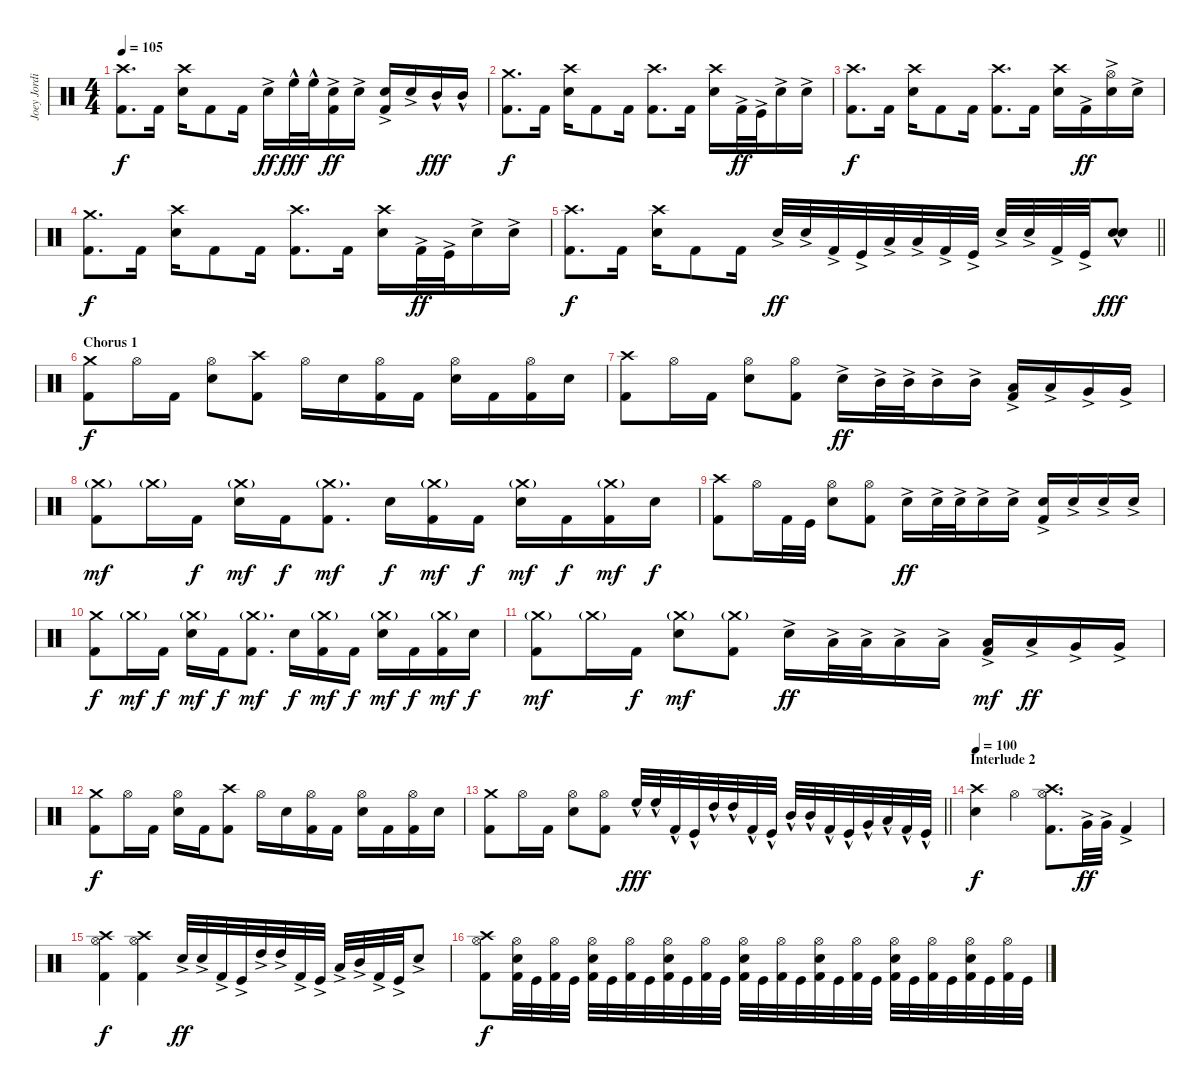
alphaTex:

\track ("Joey Jordinson (Drums)" "Joey Jordi") {instrument percussion}
\staff {score}
\articulation defaults
\ts (4 4)
\tempo 105
\clef neutral
\ks c
("Crash high (hit)" "Kick (hit) 2").8{d dy f} "Kick (hit) 2".16 ("Crash high (hit)" "Electric Snare (hit)").16 "Kick (hit) 2".8 "Kick (hit) 2".16 "Electric Snare (hit)"{ac}.16{dy ff} "High Floor Tom (hit)"{hac}.32{dy fff} "High Floor Tom (hit)"{hac}.32 ("Electric Snare (hit)"{ac} "Kick (hit) 2").16{dy ff} "Electric Snare (hit)"{ac}.16 ("Electric Snare (hit)"{ac} "Kick (hit) 2").16 "Electric Snare (hit)"{ac}.16 "Mid Tom (hit)"{hac}.16{dy fff} "Mid Tom (hit)"{hac}.16 |
("Crash medium (hit)" "Kick (hit) 2").8{d dy f} "Kick (hit) 2".16 ("Crash high (hit)" "Electric Snare (hit)").16 "Kick (hit) 2".8 "Kick (hit) 2".16 ("Crash high (hit)" "Kick (hit) 2").8{d} "Kick (hit) 2".16 ("Crash high (hit)" "Electric Snare (hit)").16 "Kick (hit) 2"{ac}.32{dy ff} "Kick (hit)"{ac}.32 "Electric Snare (hit)"{ac}.16 "Electric Snare (hit)"{ac}.16 |
("Crash high (hit)" "Kick (hit) 2").8{d dy f} "Kick (hit) 2".16 ("Crash high (hit)" "Electric Snare (hit)").16 "Kick (hit) 2".8 "Kick (hit) 2".16 ("Crash high (hit)" "Kick (hit) 2").8{d} "Kick (hit) 2".16 ("Crash high (hit)" "Electric Snare (hit)").16 "Kick (hit) 2"{ac}.16{dy ff} ("Hi-Hat (open)"{ac} "Electric Snare (hit)"{ac}).16 "Electric Snare (hit)"{ac}.16 |
("Crash medium (hit)" "Kick (hit) 2").8{d dy f} "Kick (hit) 2".16 ("Crash high (hit)" "Electric Snare (hit)").16 "Kick (hit) 2".8 "Kick (hit) 2".16 ("Crash high (hit)" "Kick (hit) 2").8{d} "Kick (hit) 2".16 ("Crash high (hit)" "Electric Snare (hit)").16 "Kick (hit) 2"{ac}.32{dy ff} "Kick (hit)"{ac}.32 "Electric Snare (hit)"{ac}.16 "Electric Snare (hit)"{ac}.16 |
\barLineRight lightlight
("Crash high (hit)" "Kick (hit) 2").8{d dy f} "Kick (hit) 2".16 ("Crash high (hit)" "Electric Snare (hit)").16 "Kick (hit) 2".8 "Kick (hit) 2".16 "Electric Snare (hit)"{ac}.32{dy ff} "Electric Snare (hit)"{ac}.32 "Kick (hit) 2"{ac}.32 "Kick (hit)"{ac}.32 "Low Tom (hit)"{ac}.32 "Low Tom (hit)"{ac}.32 "Kick (hit) 2"{ac}.32 "Kick (hit)"{ac}.32 "Electric Snare (hit)"{ac}.32 "Electric Snare (hit)"{ac}.32 "Kick (hit) 2"{ac}.32 "Kick (hit)"{ac}.32 ("Electric Snare (hit)"{hac} "Electric Snare (hit)"{hac}).8{dy fff} |
\section ("" "Chorus 1")
("Crash medium (hit)" "Kick (hit) 2").8{dy f} "Hi-Hat (open)".16 "Kick (hit) 2".16 ("Hi-Hat (open)" "Electric Snare (hit)").8 ("Crash high (hit)" "Kick (hit) 2").8 "Hi-Hat (open)".16 "Electric Snare (hit)".16 ("Hi-Hat (open)" "Kick (hit) 2").16 "Kick (hit) 2".16 ("Hi-Hat (open)" "Electric Snare (hit)").16 "Kick (hit) 2".16 ("Hi-Hat (open)" "Kick (hit) 2").16 "Electric Snare (hit)".16 |
("Crash high (hit)" "Kick (hit) 2").8 "Hi-Hat (open)".16 "Kick (hit) 2".16 ("Hi-Hat (open)" "Electric Snare (hit)").8 ("Hi-Hat (open)" "Kick (hit) 2").8 "Electric Snare (hit)"{ac}.16{dy ff} "Mid Tom (hit)"{ac}.32 "Mid Tom (hit)"{ac}.32 "Mid Tom (hit)"{ac}.16 "Mid Tom (hit)"{ac}.16 ("Low Tom (hit)"{ac} "Kick (hit) 2").16 "Low Tom (hit)"{ac}.16 "Very Low Tom (hit)"{ac}.16 "Very Low Tom (hit)"{ac}.16 |
("Crash medium (hit)"{g} "Kick (hit) 2").8{dy mf} "Crash medium (hit)"{g}.16 "Kick (hit) 2".16{dy f} ("Crash medium (hit)"{g} "Electric Snare (hit)").16{dy mf} "Kick (hit) 2".16{dy f} ("Crash medium (hit)"{g} "Kick (hit) 2").8{d dy mf} "Electric Snare (hit)".16{dy f} ("Crash medium (hit)"{g} "Kick (hit) 2").16{dy mf} "Kick (hit) 2".16{dy f} ("Crash medium (hit)"{g} "Electric Snare (hit)").16{dy mf} "Kick (hit) 2".16{dy f} ("Crash medium (hit)"{g} "Kick (hit) 2").16{dy mf} "Electric Snare (hit)".16{dy f} |
("Crash high (hit)" "Kick (hit) 2").8 "Hi-Hat (open)".16 "Kick (hit) 2".32 "Kick (hit)".32 ("Hi-Hat (open)" "Electric Snare (hit)").8 ("Hi-Hat (open)" "Kick (hit) 2").8 "Electric Snare (hit)"{ac}.16{dy ff} "Electric Snare (hit)"{ac}.32 "Electric Snare (hit)"{ac}.32 "Electric Snare (hit)"{ac}.16 "Electric Snare (hit)"{ac}.16 ("Electric Snare (hit)"{ac} "Kick (hit) 2").16 "Electric Snare (hit)"{ac}.16 "Electric Snare (hit)"{ac}.16 "Electric Snare (hit)"{ac}.16 |
("Crash medium (hit)" "Kick (hit) 2").8{dy f} "Crash medium (hit)"{g}.16{dy mf} "Kick (hit) 2".16{dy f} ("Crash medium (hit)"{g} "Electric Snare (hit)").16{dy mf} "Kick (hit) 2".16{dy f} ("Crash medium (hit)"{g} "Kick (hit) 2").8{d dy mf} "Electric Snare (hit)".16{dy f} ("Crash medium (hit)"{g} "Kick (hit) 2").16{dy mf} "Kick (hit) 2".16{dy f} ("Crash medium (hit)"{g} "Electric Snare (hit)").16{dy mf} "Kick (hit) 2".16{dy f} ("Crash medium (hit)"{g} "Kick (hit) 2").16{dy mf} "Electric Snare (hit)".16{dy f} |
("Crash medium (hit)"{g} "Kick (hit) 2").8{dy mf} "Crash medium (hit)"{g}.16 "Kick (hit) 2".16{dy f} ("Crash medium (hit)"{g} "Electric Snare (hit)").8{dy mf} ("Crash medium (hit)"{g} "Kick (hit) 2").8 "Electric Snare (hit)"{ac}.16{dy ff} "Low Tom (hit)"{ac}.32 "Low Tom (hit)"{ac}.32 "Low Tom (hit)"{ac}.16 "Low Tom (hit)"{ac}.16 ("Low Tom (hit)"{ac} "Kick (hit) 2").16{dy mf} "Low Tom (hit)"{ac}.16{dy ff} "Very Low Tom (hit)"{ac}.16 "Very Low Tom (hit)"{ac}.16 |
("Crash medium (hit)" "Kick (hit) 2").8{dy f} "Hi-Hat (open)".16 "Kick (hit) 2".16 ("Hi-Hat (open)" "Electric Snare (hit)").16 "Kick (hit) 2".16 ("Crash high (hit)" "Kick (hit) 2").8 "Hi-Hat (open)".16 "Electric Snare (hit)".16 ("Hi-Hat (open)" "Kick (hit) 2").16 "Kick (hit) 2".16 ("Hi-Hat (open)" "Electric Snare (hit)").16 "Kick (hit) 2".16 ("Hi-Hat (open)" "Kick (hit) 2").16 "Electric Snare (hit)".16 |
\barLineRight lightlight
("Crash medium (hit)" "Kick (hit) 2").8 "Hi-Hat (open)".16 "Kick (hit) 2".16 ("Hi-Hat (open)" "Electric Snare (hit)").8 ("Hi-Hat (open)" "Kick (hit) 2").8 "High Floor Tom (hit)"{hac}.32{dy fff} "High Floor Tom (hit)"{hac}.32 "Kick (hit) 2"{hac}.32 "Kick (hit)"{hac}.32 "High Tom (hit)"{hac}.32 "High Tom (hit)"{hac}.32 "Kick (hit) 2"{hac}.32 "Kick (hit)"{hac}.32 "Mid Tom (hit)"{hac}.32 "Mid Tom (hit)"{hac}.32 "Kick (hit) 2"{hac}.32 "Kick (hit)"{hac}.32 "Very Low Tom (hit)"{hac}.32 "Low Tom (hit)"{hac}.32 "Kick (hit) 2"{hac}.32 "Kick (hit)"{hac}.32 |
\section ("" "Interlude 2")
\tempo 100
("Crash high (hit)" "Electric Snare (hit)").4{dy f} "Hi-Hat (open)".4 ("Crash high (hit)" "Hi-Hat (open)" "Kick (hit) 2").8{d} "Very Low Tom (hit)"{ac}.32{dy ff} "Very Low Tom (hit)"{ac}.32 "Kick (hit) 2"{ac}.4 |
("Crash high (hit)" "Hi-Hat (open)" "Kick (hit) 2").4{dy f} ("Crash high (hit)" "Hi-Hat (open)" "Kick (hit) 2").4 "Electric Snare (hit)"{ac}.32{dy ff} "Electric Snare (hit)"{ac}.32 "Kick (hit) 2"{ac}.32 "Kick (hit)"{ac}.32 "High Tom (hit)"{ac}.32 "High Tom (hit)"{ac}.32 "Kick (hit) 2"{ac}.32 "Kick (hit)"{ac}.32 "Low Tom (hit)"{ac}.32 "Mid Tom (hit)"{ac}.32 "Kick (hit) 2"{ac}.32 "Kick (hit)"{ac}.32 "Electric Snare (hit)"{ac}.8 |
("Crash high (hit)" "Hi-Hat (open)" "Kick (hit) 2").8{dy f} ("Hi-Hat (open)" "Electric Snare (hit)" "Kick (hit) 2").32 "Kick (hit)".32 ("Hi-Hat (open)" "Kick (hit) 2").32 "Kick (hit)".32 ("Hi-Hat (open)" "Electric Snare (hit)" "Kick (hit) 2").32 "Kick (hit)".32 ("Hi-Hat (open)" "Kick (hit) 2").32 "Kick (hit)".32 ("Hi-Hat (open)" "Electric Snare (hit)" "Kick (hit) 2").32 "Kick (hit)".32 ("Hi-Hat (open)" "Kick (hit) 2").32 "Kick (hit)".32 ("Hi-Hat (open)" "Electric Snare (hit)" "Kick (hit) 2").32 "Kick (hit)".32 ("Hi-Hat (open)" "Kick (hit) 2").32 "Kick (hit)".32 ("Hi-Hat (open)" "Electric Snare (hit)" "Kick (hit) 2").32 "Kick (hit)".32 ("Hi-Hat (open)" "Kick (hit) 2").32 "Kick (hit)".32 ("Hi-Hat (open)" "Electric Snare (hit)" "Kick (hit) 2").32 "Kick (hit)".32 ("Hi-Hat (open)" "Kick (hit) 2").32 "Kick (hit)".32 ("Hi-Hat (open)" "Electric Snare (hit)" "Kick (hit) 2").32 "Kick (hit)".32 ("Hi-Hat (open)" "Kick (hit) 2").32 "Kick (hit)".32
